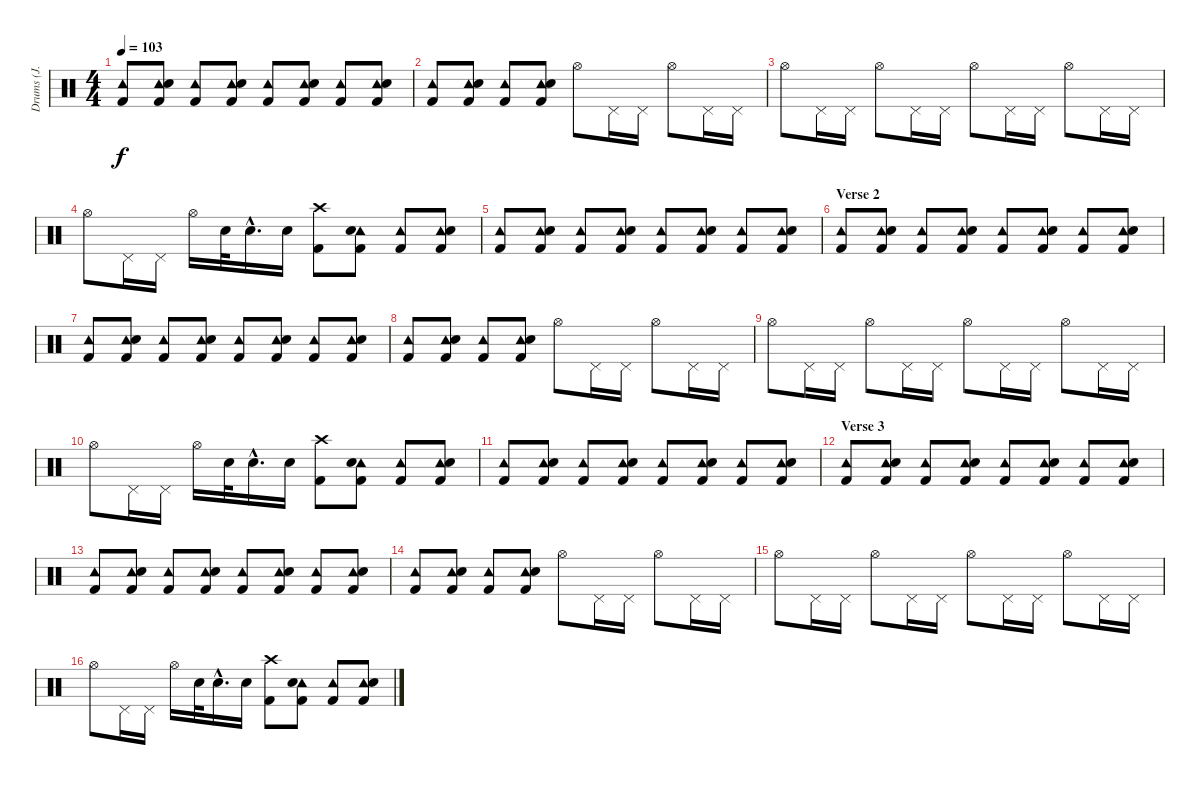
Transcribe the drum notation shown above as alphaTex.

\track ("Drums (J. Cramer)" "Drums (J. ") {instrument percussion}
\staff {score}
\articulation defaults
\ts (4 4)
\tempo 103
\clef neutral
\ks c
("Tambourine (hit)" "Kick (hit) 2").8{dy f} ("Tambourine (hit)" "Electric Snare (hit)" "Kick (hit) 2").8 ("Tambourine (hit)" "Kick (hit) 2").8 ("Tambourine (hit)" "Electric Snare (hit)" "Kick (hit) 2").8 ("Tambourine (hit)" "Kick (hit) 2").8 ("Tambourine (hit)" "Electric Snare (hit)" "Kick (hit) 2").8 ("Tambourine (hit)" "Kick (hit) 2").8 ("Tambourine (hit)" "Electric Snare (hit)" "Kick (hit) 2").8 |
("Tambourine (hit)" "Kick (hit) 2").8 ("Tambourine (hit)" "Electric Snare (hit)" "Kick (hit) 2").8 ("Tambourine (hit)" "Kick (hit) 2").8 ("Tambourine (hit)" "Electric Snare (hit)" "Kick (hit) 2").8 "Hi-Hat (open)".8 "Pedal Hi-Hat (hit)".16 "Pedal Hi-Hat (hit)".16 "Hi-Hat (open)".8 "Pedal Hi-Hat (hit)".16 "Pedal Hi-Hat (hit)".16 |
"Hi-Hat (open)".8 "Pedal Hi-Hat (hit)".16 "Pedal Hi-Hat (hit)".16 "Hi-Hat (open)".8 "Pedal Hi-Hat (hit)".16 "Pedal Hi-Hat (hit)".16 "Hi-Hat (open)".8 "Pedal Hi-Hat (hit)".16 "Pedal Hi-Hat (hit)".16 "Hi-Hat (open)".8 "Pedal Hi-Hat (hit)".16 "Pedal Hi-Hat (hit)".16 |
"Hi-Hat (open)".8 "Pedal Hi-Hat (hit)".16 "Pedal Hi-Hat (hit)".16 "Hi-Hat (open)".16 "Electric Snare (hit)".32 "Electric Snare (hit)"{hac}.16{d} "Electric Snare (hit)".16 ("Kick (hit) 2" "Crash high (hit)").8 ("Tambourine (hit)" "Electric Snare (hit)" "Kick (hit) 2").8 ("Tambourine (hit)" "Kick (hit) 2").8 ("Tambourine (hit)" "Electric Snare (hit)" "Kick (hit) 2").8 |
("Tambourine (hit)" "Kick (hit) 2").8 ("Tambourine (hit)" "Electric Snare (hit)" "Kick (hit) 2").8 ("Tambourine (hit)" "Kick (hit) 2").8 ("Tambourine (hit)" "Electric Snare (hit)" "Kick (hit) 2").8 ("Tambourine (hit)" "Kick (hit) 2").8 ("Tambourine (hit)" "Electric Snare (hit)" "Kick (hit) 2").8 ("Tambourine (hit)" "Kick (hit) 2").8 ("Tambourine (hit)" "Electric Snare (hit)" "Kick (hit) 2").8 |
\section ("" "Verse 2")
("Tambourine (hit)" "Kick (hit) 2").8 ("Tambourine (hit)" "Electric Snare (hit)" "Kick (hit) 2").8 ("Tambourine (hit)" "Kick (hit) 2").8 ("Tambourine (hit)" "Electric Snare (hit)" "Kick (hit) 2").8 ("Tambourine (hit)" "Kick (hit) 2").8 ("Tambourine (hit)" "Electric Snare (hit)" "Kick (hit) 2").8 ("Tambourine (hit)" "Kick (hit) 2").8 ("Tambourine (hit)" "Electric Snare (hit)" "Kick (hit) 2").8 |
("Tambourine (hit)" "Kick (hit) 2").8 ("Tambourine (hit)" "Electric Snare (hit)" "Kick (hit) 2").8 ("Tambourine (hit)" "Kick (hit) 2").8 ("Tambourine (hit)" "Electric Snare (hit)" "Kick (hit) 2").8 ("Tambourine (hit)" "Kick (hit) 2").8 ("Tambourine (hit)" "Electric Snare (hit)" "Kick (hit) 2").8 ("Tambourine (hit)" "Kick (hit) 2").8 ("Tambourine (hit)" "Electric Snare (hit)" "Kick (hit) 2").8 |
("Tambourine (hit)" "Kick (hit) 2").8 ("Tambourine (hit)" "Electric Snare (hit)" "Kick (hit) 2").8 ("Tambourine (hit)" "Kick (hit) 2").8 ("Tambourine (hit)" "Electric Snare (hit)" "Kick (hit) 2").8 "Hi-Hat (open)".8 "Pedal Hi-Hat (hit)".16 "Pedal Hi-Hat (hit)".16 "Hi-Hat (open)".8 "Pedal Hi-Hat (hit)".16 "Pedal Hi-Hat (hit)".16 |
"Hi-Hat (open)".8 "Pedal Hi-Hat (hit)".16 "Pedal Hi-Hat (hit)".16 "Hi-Hat (open)".8 "Pedal Hi-Hat (hit)".16 "Pedal Hi-Hat (hit)".16 "Hi-Hat (open)".8 "Pedal Hi-Hat (hit)".16 "Pedal Hi-Hat (hit)".16 "Hi-Hat (open)".8 "Pedal Hi-Hat (hit)".16 "Pedal Hi-Hat (hit)".16 |
"Hi-Hat (open)".8 "Pedal Hi-Hat (hit)".16 "Pedal Hi-Hat (hit)".16 "Hi-Hat (open)".16 "Electric Snare (hit)".32 "Electric Snare (hit)"{hac}.16{d} "Electric Snare (hit)".16 ("Kick (hit) 2" "Crash high (hit)").8 ("Tambourine (hit)" "Electric Snare (hit)" "Kick (hit) 2").8 ("Tambourine (hit)" "Kick (hit) 2").8 ("Tambourine (hit)" "Electric Snare (hit)" "Kick (hit) 2").8 |
("Tambourine (hit)" "Kick (hit) 2").8 ("Tambourine (hit)" "Electric Snare (hit)" "Kick (hit) 2").8 ("Tambourine (hit)" "Kick (hit) 2").8 ("Tambourine (hit)" "Electric Snare (hit)" "Kick (hit) 2").8 ("Tambourine (hit)" "Kick (hit) 2").8 ("Tambourine (hit)" "Electric Snare (hit)" "Kick (hit) 2").8 ("Tambourine (hit)" "Kick (hit) 2").8 ("Tambourine (hit)" "Electric Snare (hit)" "Kick (hit) 2").8 |
\section ("" "Verse 3")
("Tambourine (hit)" "Kick (hit) 2").8 ("Tambourine (hit)" "Electric Snare (hit)" "Kick (hit) 2").8 ("Tambourine (hit)" "Kick (hit) 2").8 ("Tambourine (hit)" "Electric Snare (hit)" "Kick (hit) 2").8 ("Tambourine (hit)" "Kick (hit) 2").8 ("Tambourine (hit)" "Electric Snare (hit)" "Kick (hit) 2").8 ("Tambourine (hit)" "Kick (hit) 2").8 ("Tambourine (hit)" "Electric Snare (hit)" "Kick (hit) 2").8 |
("Tambourine (hit)" "Kick (hit) 2").8 ("Tambourine (hit)" "Electric Snare (hit)" "Kick (hit) 2").8 ("Tambourine (hit)" "Kick (hit) 2").8 ("Tambourine (hit)" "Electric Snare (hit)" "Kick (hit) 2").8 ("Tambourine (hit)" "Kick (hit) 2").8 ("Tambourine (hit)" "Electric Snare (hit)" "Kick (hit) 2").8 ("Tambourine (hit)" "Kick (hit) 2").8 ("Tambourine (hit)" "Electric Snare (hit)" "Kick (hit) 2").8 |
("Tambourine (hit)" "Kick (hit) 2").8 ("Tambourine (hit)" "Electric Snare (hit)" "Kick (hit) 2").8 ("Tambourine (hit)" "Kick (hit) 2").8 ("Tambourine (hit)" "Electric Snare (hit)" "Kick (hit) 2").8 "Hi-Hat (open)".8 "Pedal Hi-Hat (hit)".16 "Pedal Hi-Hat (hit)".16 "Hi-Hat (open)".8 "Pedal Hi-Hat (hit)".16 "Pedal Hi-Hat (hit)".16 |
"Hi-Hat (open)".8 "Pedal Hi-Hat (hit)".16 "Pedal Hi-Hat (hit)".16 "Hi-Hat (open)".8 "Pedal Hi-Hat (hit)".16 "Pedal Hi-Hat (hit)".16 "Hi-Hat (open)".8 "Pedal Hi-Hat (hit)".16 "Pedal Hi-Hat (hit)".16 "Hi-Hat (open)".8 "Pedal Hi-Hat (hit)".16 "Pedal Hi-Hat (hit)".16 |
"Hi-Hat (open)".8 "Pedal Hi-Hat (hit)".16 "Pedal Hi-Hat (hit)".16 "Hi-Hat (open)".16 "Electric Snare (hit)".32 "Electric Snare (hit)"{hac}.16{d} "Electric Snare (hit)".16 ("Kick (hit) 2" "Crash high (hit)").8 ("Tambourine (hit)" "Electric Snare (hit)" "Kick (hit) 2").8 ("Tambourine (hit)" "Kick (hit) 2").8 ("Tambourine (hit)" "Electric Snare (hit)" "Kick (hit) 2").8
